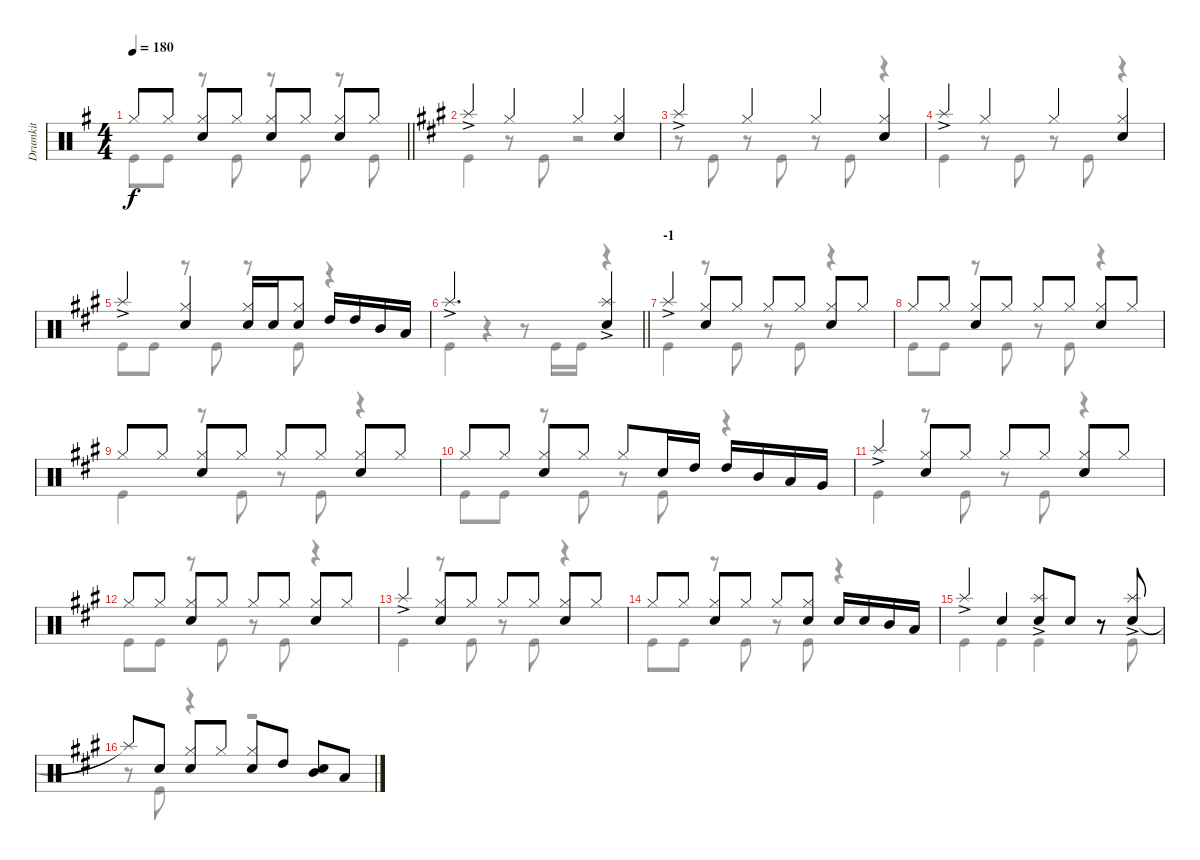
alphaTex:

\track ("Drumkit" "Drumkit") {instrument percussion}
\staff {score}
\articulation defaults
\voice
\ts (4 4)
\tempo 180
\clef neutral
\barLineRight lightlight
\ks g "Hi-Hat (closed)".8{dy f} "Hi-Hat (closed)".8
("Hi-Hat (closed)" "Snare (hit) 2").8 "Hi-Hat (closed)".8 ("Hi-Hat (closed)" "Snare (hit) 2").8 "Hi-Hat (closed)".8 ("Hi-Hat (closed)" "Snare (hit) 2").8 "Hi-Hat (closed)".8 |
\section ("" "")
\ks a "Splash (hit)"{ac}.4 "Hi-Hat (closed)".4 "Hi-Hat (closed)".4
("Hi-Hat (closed)" "Snare (hit) 2").4 |
"Splash (hit)"{ac}.4 "Hi-Hat (closed)".4 "Hi-Hat (closed)".4 ("Hi-Hat (closed)" "Snare (hit) 2").4 |
"Splash (hit)"{ac}.4 "Hi-Hat (closed)".4 "Hi-Hat (closed)".4 ("Hi-Hat (closed)" "Snare (hit) 2").4 |
"Splash (hit)"{ac}.4 ("Hi-Hat (closed)" "Snare (hit) 2").4 ("Snare (hit) 2" "Hi-Hat (closed)").16 "Snare (hit) 2".16 ("Snare (hit) 2" "Hi-Hat (closed)").8 "High Tom (hit)".16 "High Tom (hit)".16 "Mid Tom (hit)".16 "Low Tom (hit)".16 |
\barLineRight lightlight "Splash (hit)"{ac}.2{d}
("Splash (hit)"{ac} "Snare (hit) 2").4 |
\section ("" "-1")
"Splash (hit)"{ac}.4 ("Snare (hit) 2" "Hi-Hat (closed)").8 "Hi-Hat (closed)".8 "Hi-Hat (closed)".8 "Hi-Hat (closed)".8 ("Hi-Hat (closed)" "Snare (hit) 2").8 "Hi-Hat (closed)".8 |
"Hi-Hat (closed)".8 "Hi-Hat (closed)".8 ("Hi-Hat (closed)" "Snare (hit) 2").8 "Hi-Hat (closed)".8 "Hi-Hat (closed)".8 "Hi-Hat (closed)".8 ("Hi-Hat (closed)" "Snare (hit) 2").8 "Hi-Hat (closed)".8 |
"Hi-Hat (closed)".8 "Hi-Hat (closed)".8 ("Snare (hit) 2" "Hi-Hat (closed)").8 "Hi-Hat (closed)".8 "Hi-Hat (closed)".8 "Hi-Hat (closed)".8 ("Hi-Hat (closed)" "Snare (hit) 2").8 "Hi-Hat (closed)".8 |
"Hi-Hat (closed)".8 "Hi-Hat (closed)".8 ("Hi-Hat (closed)" "Snare (hit) 2").8 "Hi-Hat (closed)".8 "Hi-Hat (closed)".8 "Snare (hit) 2".16 "High Tom (hit)".16 "High Tom (hit)".16 "Mid Tom (hit)".16 "Low Tom (hit)".16 "Very Low Tom (hit)".16 |
"Splash (hit)"{ac}.4 ("Snare (hit) 2" "Hi-Hat (closed)").8 "Hi-Hat (closed)".8 "Hi-Hat (closed)".8 "Hi-Hat (closed)".8 ("Hi-Hat (closed)" "Snare (hit) 2").8 "Hi-Hat (closed)".8 |
"Hi-Hat (closed)".8 "Hi-Hat (closed)".8 ("Hi-Hat (closed)" "Snare (hit) 2").8 "Hi-Hat (closed)".8 "Hi-Hat (closed)".8 "Hi-Hat (closed)".8 ("Hi-Hat (closed)" "Snare (hit) 2").8 "Hi-Hat (closed)".8 |
"Splash (hit)"{ac}.4 ("Snare (hit) 2" "Hi-Hat (closed)").8 "Hi-Hat (closed)".8 "Hi-Hat (closed)".8 "Hi-Hat (closed)".8 ("Hi-Hat (closed)" "Snare (hit) 2").8 "Hi-Hat (closed)".8 |
"Hi-Hat (closed)".8 "Hi-Hat (closed)".8 ("Hi-Hat (closed)" "Snare (hit) 2").8 "Hi-Hat (closed)".8 "Hi-Hat (closed)".8 ("Snare (hit) 2" "Hi-Hat (closed)").8 "Snare (hit) 2".16 "Snare (hit) 2".16 "Mid Tom (hit)".16 "Low Tom (hit)".16 |
"Splash (hit)"{ac}.4 "Snare (hit) 2".4 ("Snare (hit) 2" "Splash (hit)"{ac}).8 "Snare (hit) 2".8 r.8 ("Snare (hit) 2" "Splash (hit)"{ac}).8 |
"Splash (hit)"{t}.8 "Snare (hit) 2".8 ("Snare (hit) 2" "Hi-Hat (closed)").8 "Hi-Hat (closed)".8 ("Hi-Hat (closed)" "Snare (hit) 2").8 "High Tom (hit)".8 ("Mid Tom (hit)" "Snare (hit) 2").8 "Low Tom (hit)".8
\voice
\clef neutral
\ottava regular
\simile none
\barLineRight lightlight
\ks g "Kick (hit)".8{dy f} "Kick (hit)".8
r.8 "Kick (hit)".8 r.8 "Kick (hit)".8 r.8 "Kick (hit)".8 |
\ks a "Kick (hit)".4
r.8 "Kick (hit)".8 r.2 |
r.8 "Kick (hit)".8 r.8 "Kick (hit)".8 r.8 "Kick (hit)".8 r.4 |
"Kick (hit)".4 r.8 "Kick (hit)".8 r.8 "Kick (hit)".8 r.4 |
"Kick (hit)".8 "Kick (hit)".8 r.8 "Kick (hit)".8 r.8 "Kick (hit)".8 r.4 |
\barLineRight lightlight "Kick (hit)".4
r.4 r.8 "Kick (hit)".16 "Kick (hit)".16 r.4 |
"Kick (hit)".4 r.8 "Kick (hit)".8 r.8 "Kick (hit)".8 r.4 |
"Kick (hit)".8 "Kick (hit)".8 r.8 "Kick (hit)".8 r.8 "Kick (hit)".8 r.4 |
"Kick (hit)".4 r.8 "Kick (hit)".8 r.8 "Kick (hit)".8 r.4 |
"Kick (hit)".8 "Kick (hit)".8 r.8 "Kick (hit)".8 r.8 "Kick (hit)".8 r.4 |
"Kick (hit)".4 r.8 "Kick (hit)".8 r.8 "Kick (hit)".8 r.4 |
"Kick (hit)".8 "Kick (hit)".8 r.8 "Kick (hit)".8 r.8 "Kick (hit)".8 r.4 |
"Kick (hit)".4 r.8 "Kick (hit)".8 r.8 "Kick (hit)".8 r.4 |
"Kick (hit)".8 "Kick (hit)".8 r.8 "Kick (hit)".8 r.8 "Kick (hit)".8 r.4 |
"Kick (hit)".4 "Kick (hit)".4 "Kick (hit)".4 r.8 "Kick (hit)".8 |
r.8 "Kick (hit)".8 r.4 r.2
